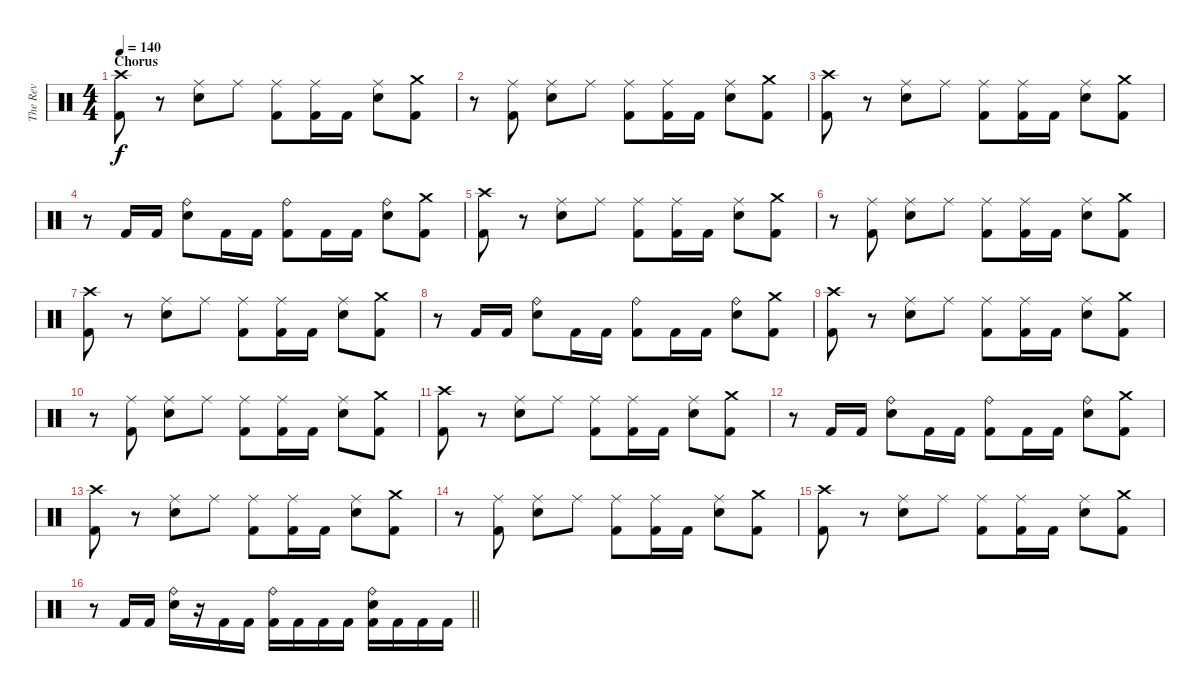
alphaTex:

\track ("The Rev" "The Rev") {instrument percussion}
\staff {score}
\articulation defaults
\ts (4 4)
\section ("" "Chorus")
\tempo 140
\clef neutral
\ks c
("Crash high (hit)" "Kick (hit) 2").8{dy f} r.8 ("Ride (middle)" "Electric Snare (hit)").8 "Ride (middle)".8 ("Ride (middle)" "Kick (hit) 2").8 ("Ride (middle)" "Kick (hit) 2").16 "Kick (hit) 2".16 ("Ride (middle)" "Electric Snare (hit)").8 ("Crash medium (hit)" "Kick (hit) 2").8 |
r.8 ("Ride (middle)" "Kick (hit) 2").8 ("Ride (middle)" "Electric Snare (hit)").8 "Ride (middle)".8 ("Ride (middle)" "Kick (hit) 2").8 ("Ride (middle)" "Kick (hit) 2").16 "Kick (hit) 2".16 ("Ride (middle)" "Electric Snare (hit)").8 ("Crash medium (hit)" "Kick (hit) 2").8 |
("Crash high (hit)" "Kick (hit) 2").8 r.8 ("Ride (middle)" "Electric Snare (hit)").8 "Ride (middle)".8 ("Ride (middle)" "Kick (hit) 2").8 ("Ride (middle)" "Kick (hit) 2").16 "Kick (hit) 2".16 ("Ride (middle)" "Electric Snare (hit)").8 ("Crash medium (hit)" "Kick (hit) 2").8 |
r.8 "Kick (hit) 2".16 "Kick (hit) 2".16 ("Ride (bell)" "Electric Snare (hit)").8 "Kick (hit) 2".16 "Kick (hit) 2".16 ("Ride (bell)" "Kick (hit) 2").8 "Kick (hit) 2".16 "Kick (hit) 2".16 ("Ride (bell)" "Electric Snare (hit)").8 ("Crash medium (hit)" "Kick (hit) 2").8 |
("Crash high (hit)" "Kick (hit) 2").8 r.8 ("Ride (middle)" "Electric Snare (hit)").8 "Ride (middle)".8 ("Ride (middle)" "Kick (hit) 2").8 ("Ride (middle)" "Kick (hit) 2").16 "Kick (hit) 2".16 ("Ride (middle)" "Electric Snare (hit)").8 ("Crash medium (hit)" "Kick (hit) 2").8 |
r.8 ("Ride (middle)" "Kick (hit) 2").8 ("Ride (middle)" "Electric Snare (hit)").8 "Ride (middle)".8 ("Ride (middle)" "Kick (hit) 2").8 ("Ride (middle)" "Kick (hit) 2").16 "Kick (hit) 2".16 ("Ride (middle)" "Electric Snare (hit)").8 ("Crash medium (hit)" "Kick (hit) 2").8 |
("Crash high (hit)" "Kick (hit) 2").8 r.8 ("Ride (middle)" "Electric Snare (hit)").8 "Ride (middle)".8 ("Ride (middle)" "Kick (hit) 2").8 ("Ride (middle)" "Kick (hit) 2").16 "Kick (hit) 2".16 ("Ride (middle)" "Electric Snare (hit)").8 ("Crash medium (hit)" "Kick (hit) 2").8 |
r.8 "Kick (hit) 2".16 "Kick (hit) 2".16 ("Ride (bell)" "Electric Snare (hit)").8 "Kick (hit) 2".16 "Kick (hit) 2".16 ("Ride (bell)" "Kick (hit) 2").8 "Kick (hit) 2".16 "Kick (hit) 2".16 ("Ride (bell)" "Electric Snare (hit)").8 ("Crash medium (hit)" "Kick (hit) 2").8 |
("Crash high (hit)" "Kick (hit) 2").8 r.8 ("Ride (middle)" "Electric Snare (hit)").8 "Ride (middle)".8 ("Ride (middle)" "Kick (hit) 2").8 ("Ride (middle)" "Kick (hit) 2").16 "Kick (hit) 2".16 ("Ride (middle)" "Electric Snare (hit)").8 ("Crash medium (hit)" "Kick (hit) 2").8 |
r.8 ("Ride (middle)" "Kick (hit) 2").8 ("Ride (middle)" "Electric Snare (hit)").8 "Ride (middle)".8 ("Ride (middle)" "Kick (hit) 2").8 ("Ride (middle)" "Kick (hit) 2").16 "Kick (hit) 2".16 ("Ride (middle)" "Electric Snare (hit)").8 ("Crash medium (hit)" "Kick (hit) 2").8 |
("Crash high (hit)" "Kick (hit) 2").8 r.8 ("Ride (middle)" "Electric Snare (hit)").8 "Ride (middle)".8 ("Ride (middle)" "Kick (hit) 2").8 ("Ride (middle)" "Kick (hit) 2").16 "Kick (hit) 2".16 ("Ride (middle)" "Electric Snare (hit)").8 ("Crash medium (hit)" "Kick (hit) 2").8 |
r.8 "Kick (hit) 2".16 "Kick (hit) 2".16 ("Ride (bell)" "Electric Snare (hit)").8 "Kick (hit) 2".16 "Kick (hit) 2".16 ("Ride (bell)" "Kick (hit) 2").8 "Kick (hit) 2".16 "Kick (hit) 2".16 ("Ride (bell)" "Electric Snare (hit)").8 ("Crash medium (hit)" "Kick (hit) 2").8 |
("Crash high (hit)" "Kick (hit) 2").8 r.8 ("Ride (middle)" "Electric Snare (hit)").8 "Ride (middle)".8 ("Ride (middle)" "Kick (hit) 2").8 ("Ride (middle)" "Kick (hit) 2").16 "Kick (hit) 2".16 ("Ride (middle)" "Electric Snare (hit)").8 ("Crash medium (hit)" "Kick (hit) 2").8 |
r.8 ("Ride (middle)" "Kick (hit) 2").8 ("Ride (middle)" "Electric Snare (hit)").8 "Ride (middle)".8 ("Ride (middle)" "Kick (hit) 2").8 ("Ride (middle)" "Kick (hit) 2").16 "Kick (hit) 2".16 ("Ride (middle)" "Electric Snare (hit)").8 ("Crash medium (hit)" "Kick (hit) 2").8 |
("Crash high (hit)" "Kick (hit) 2").8 r.8 ("Ride (middle)" "Electric Snare (hit)").8 "Ride (middle)".8 ("Ride (middle)" "Kick (hit) 2").8 ("Ride (middle)" "Kick (hit) 2").16 "Kick (hit) 2".16 ("Ride (middle)" "Electric Snare (hit)").8 ("Crash medium (hit)" "Kick (hit) 2").8 |
\barLineRight lightlight
r.8 "Kick (hit) 2".16 "Kick (hit) 2".16 ("Ride (bell)" "Electric Snare (hit)").16 r.16 "Kick (hit) 2".16 "Kick (hit) 2".16 ("Ride (bell)" "Kick (hit) 2").16 "Kick (hit) 2".16 "Kick (hit) 2".16 "Kick (hit) 2".16 ("Ride (bell)" "Electric Snare (hit)" "Kick (hit) 2").16 "Kick (hit) 2".16 "Kick (hit) 2".16 "Kick (hit) 2".16
